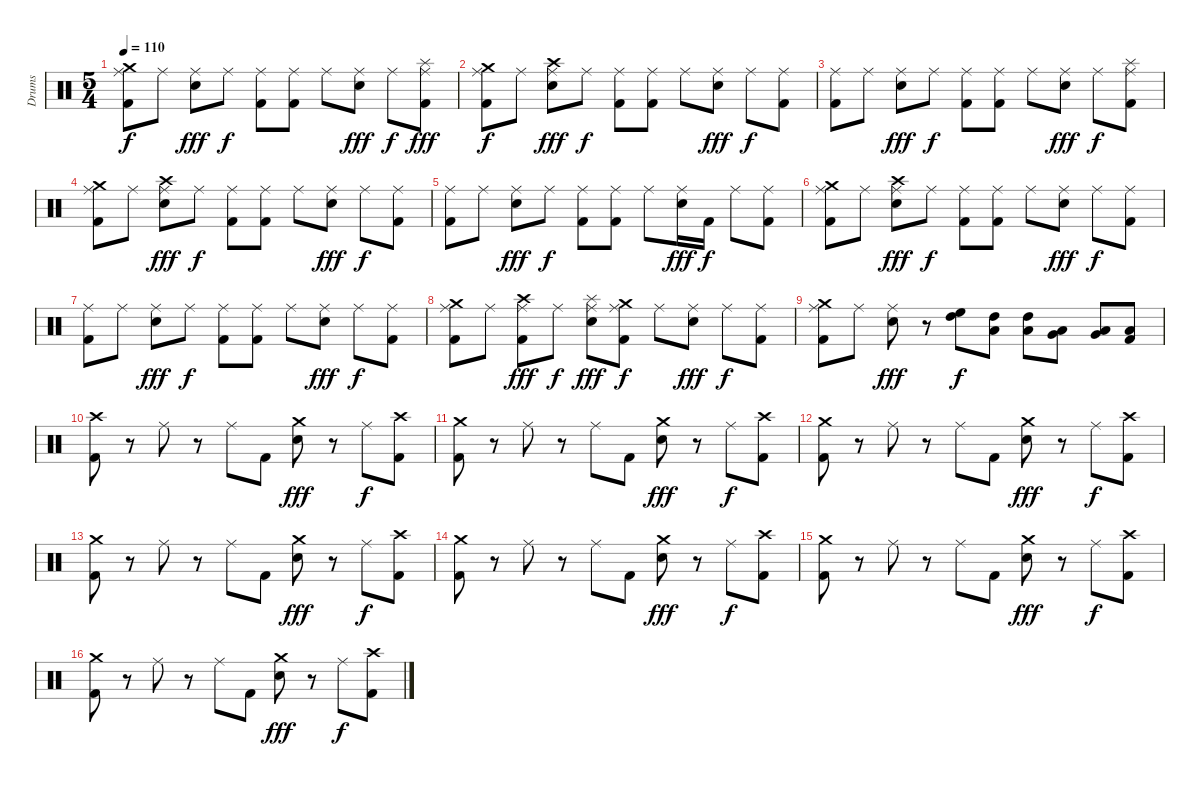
\track ("Drums" "Drums") {instrument percussion}
\staff {score}
\articulation defaults
\ts (5 4)
\tempo 110
\clef neutral
\ks c
("Ride (middle)" "Crash medium (hit)" "Kick (hit) 2").8{dy f} "Ride (middle)".8 ("Ride (middle)" "Electric Snare (hit)").8{dy fff} "Ride (middle)".8{dy f} ("Ride (middle)" "Kick (hit) 2").8 ("Ride (middle)" "Kick (hit) 2").8 "Ride (middle)".8 ("Ride (middle)" "Electric Snare (hit)").8{dy fff} "Ride (middle)".8{dy f} ("Ride (middle)" "Splash (hit)" "Kick (hit) 2").8{dy fff} |
("Ride (middle)" "Crash medium (hit)" "Kick (hit) 2").8{dy f} "Ride (middle)".8 ("Ride (middle)" "Crash high (hit)" "Electric Snare (hit)").8{dy fff} "Ride (middle)".8{dy f} ("Ride (middle)" "Kick (hit) 2").8 ("Ride (middle)" "Kick (hit) 2").8 "Ride (middle)".8 ("Ride (middle)" "Electric Snare (hit)").8{dy fff} "Ride (middle)".8{dy f} ("Ride (middle)" "Kick (hit) 2").8 |
("Ride (middle)" "Kick (hit) 2").8 "Ride (middle)".8 ("Ride (middle)" "Electric Snare (hit)").8{dy fff} "Ride (middle)".8{dy f} ("Ride (middle)" "Kick (hit) 2").8 ("Ride (middle)" "Kick (hit) 2").8 "Ride (middle)".8 ("Ride (middle)" "Electric Snare (hit)").8{dy fff} "Ride (middle)".8{dy f} ("Ride (middle)" "Splash (hit)" "Kick (hit) 2").8 |
("Ride (middle)" "Crash medium (hit)" "Kick (hit) 2").8 "Ride (middle)".8 ("Ride (middle)" "Crash high (hit)" "Electric Snare (hit)").8{dy fff} "Ride (middle)".8{dy f} ("Ride (middle)" "Kick (hit) 2").8 ("Ride (middle)" "Kick (hit) 2").8 "Ride (middle)".8 ("Ride (middle)" "Electric Snare (hit)").8{dy fff} "Ride (middle)".8{dy f} ("Ride (middle)" "Kick (hit) 2").8 |
("Ride (middle)" "Kick (hit) 2").8 "Ride (middle)".8 ("Ride (middle)" "Electric Snare (hit)").8{dy fff} "Ride (middle)".8{dy f} ("Ride (middle)" "Kick (hit) 2").8 ("Ride (middle)" "Kick (hit) 2").8 "Ride (middle)".8 ("Ride (middle)" "Electric Snare (hit)").16{dy fff} "Kick (hit) 2".16{dy f} "Ride (middle)".8 ("Ride (middle)" "Kick (hit) 2").8 |
("Ride (middle)" "Crash medium (hit)" "Kick (hit) 2").8 "Ride (middle)".8 ("Ride (middle)" "Crash high (hit)" "Electric Snare (hit)").8{dy fff} "Ride (middle)".8{dy f} ("Ride (middle)" "Kick (hit) 2").8 ("Ride (middle)" "Kick (hit) 2").8 "Ride (middle)".8 ("Ride (middle)" "Electric Snare (hit)").8{dy fff} "Ride (middle)".8{dy f} ("Ride (middle)" "Kick (hit) 2").8 |
("Ride (middle)" "Kick (hit) 2").8 "Ride (middle)".8 ("Ride (middle)" "Electric Snare (hit)").8{dy fff} "Ride (middle)".8{dy f} ("Ride (middle)" "Kick (hit) 2").8 ("Ride (middle)" "Kick (hit) 2").8 "Ride (middle)".8 ("Ride (middle)" "Electric Snare (hit)").8{dy fff} "Ride (middle)".8{dy f} ("Ride (middle)" "Kick (hit) 2").8 |
("Ride (middle)" "Crash medium (hit)" "Kick (hit) 2").8 "Ride (middle)".8 ("Ride (middle)" "Crash high (hit)" "Kick (hit) 2").8{dy fff} "Ride (middle)".8{dy f} ("Ride (middle)" "Splash (hit)" "Electric Snare (hit)").8{dy fff} ("Ride (middle)" "Crash medium (hit)" "Kick (hit) 2").8{dy f} "Ride (middle)".8 ("Ride (middle)" "Electric Snare (hit)").8{dy fff} "Ride (middle)".8{dy f} ("Ride (middle)" "Kick (hit) 2").8 |
("Ride (middle)" "Crash medium (hit)" "Kick (hit) 2").8 "Ride (middle)".8 ("Ride (middle)" "Electric Snare (hit)").8{dy fff} r.8 ("High Tom (hit)" "High Floor Tom (hit)").8{dy f} ("Low Tom (hit)" "High Tom (hit)").8 ("Low Tom (hit)" "High Tom (hit)").8 ("Very Low Tom (hit)" "Low Tom (hit)").8 ("Low Floor Tom (hit)" "Very Low Tom (hit)").8 ("Low Floor Tom (hit)" "Kick (hit) 2").8 |
("Crash high (hit)" "Kick (hit) 2").8 r.8 "Ride (middle)".8 r.8 "Ride (middle)".8 "Kick (hit) 2".8 ("Crash medium (hit)" "Electric Snare (hit)").8{dy fff} r.8 "Ride (middle)".8{dy f} ("Crash high (hit)" "Kick (hit) 2").8 |
("Crash medium (hit)" "Kick (hit) 2").8 r.8 "Ride (middle)".8 r.8 "Ride (middle)".8 "Kick (hit) 2".8 ("Crash medium (hit)" "Electric Snare (hit)").8{dy fff} r.8 "Ride (middle)".8{dy f} ("Crash high (hit)" "Kick (hit) 2").8 |
("Crash medium (hit)" "Kick (hit) 2").8 r.8 "Ride (middle)".8 r.8 "Ride (middle)".8 "Kick (hit) 2".8 ("Crash medium (hit)" "Electric Snare (hit)").8{dy fff} r.8 "Ride (middle)".8{dy f} ("Crash high (hit)" "Kick (hit) 2").8 |
("Crash medium (hit)" "Kick (hit) 2").8 r.8 "Ride (middle)".8 r.8 "Ride (middle)".8 "Kick (hit) 2".8 ("Crash medium (hit)" "Electric Snare (hit)").8{dy fff} r.8 "Ride (middle)".8{dy f} ("Crash high (hit)" "Kick (hit) 2").8 |
("Crash medium (hit)" "Kick (hit) 2").8 r.8 "Ride (middle)".8 r.8 "Ride (middle)".8 "Kick (hit) 2".8 ("Crash medium (hit)" "Electric Snare (hit)").8{dy fff} r.8 "Ride (middle)".8{dy f} ("Crash high (hit)" "Kick (hit) 2").8 |
("Crash medium (hit)" "Kick (hit) 2").8 r.8 "Ride (middle)".8 r.8 "Ride (middle)".8 "Kick (hit) 2".8 ("Crash medium (hit)" "Electric Snare (hit)").8{dy fff} r.8 "Ride (middle)".8{dy f} ("Crash high (hit)" "Kick (hit) 2").8 |
("Crash medium (hit)" "Kick (hit) 2").8 r.8 "Ride (middle)".8 r.8 "Ride (middle)".8 "Kick (hit) 2".8 ("Crash medium (hit)" "Electric Snare (hit)").8{dy fff} r.8 "Ride (middle)".8{dy f} ("Crash high (hit)" "Kick (hit) 2").8
